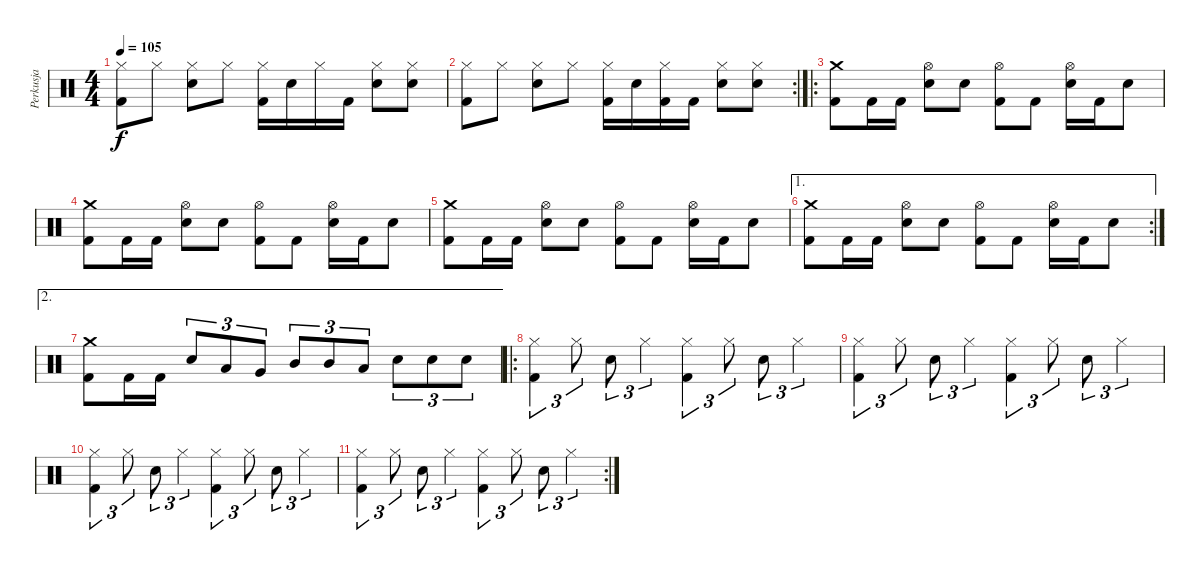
\track ("Perkusja" "Perkusja") {instrument percussion}
\staff {score}
\articulation defaults
\ts (4 4)
\tempo 105
\clef neutral
\ks c
("Hi-Hat (closed)" "Kick (hit) 2").8{dy f} "Hi-Hat (closed)".8 ("Hi-Hat (closed)" "Snare (hit) 2").8 "Hi-Hat (closed)".8 ("Hi-Hat (closed)" "Kick (hit) 2").16 "Snare (hit) 2".16 "Hi-Hat (closed)".16 "Kick (hit) 2".16 ("Hi-Hat (closed)" "Snare (hit) 2").8 ("Hi-Hat (closed)" "Snare (hit) 2").8 |
\rc 2
("Hi-Hat (closed)" "Kick (hit) 2").8 "Hi-Hat (closed)".8 ("Hi-Hat (closed)" "Snare (hit) 2").8 "Hi-Hat (closed)".8 ("Hi-Hat (closed)" "Kick (hit) 2").16 "Snare (hit) 2".16 ("Hi-Hat (closed)" "Kick (hit) 2").16 "Kick (hit) 2".16 ("Hi-Hat (closed)" "Snare (hit) 2").8 ("Hi-Hat (closed)" "Snare (hit) 2").8 |
\ro
("Crash medium (hit)" "Kick (hit) 2").8 "Kick (hit) 2".16 "Kick (hit) 2".16 ("Hi-Hat (open)" "Snare (hit) 2").8 "Snare (hit) 2".8 ("Hi-Hat (open)" "Kick (hit) 2").8 "Kick (hit) 2".8 ("Hi-Hat (open)" "Snare (hit) 2").16 "Kick (hit) 2".16 "Snare (hit) 2".8 |
("Crash medium (hit)" "Kick (hit) 2").8 "Kick (hit) 2".16 "Kick (hit) 2".16 ("Hi-Hat (open)" "Snare (hit) 2").8 "Snare (hit) 2".8 ("Hi-Hat (open)" "Kick (hit) 2").8 "Kick (hit) 2".8 ("Hi-Hat (open)" "Snare (hit) 2").16 "Kick (hit) 2".16 "Snare (hit) 2".8 |
("Crash medium (hit)" "Kick (hit) 2").8 "Kick (hit) 2".16 "Kick (hit) 2".16 ("Hi-Hat (open)" "Snare (hit) 2").8 "Snare (hit) 2".8 ("Hi-Hat (open)" "Kick (hit) 2").8 "Kick (hit) 2".8 ("Hi-Hat (open)" "Snare (hit) 2").16 "Kick (hit) 2".16 "Snare (hit) 2".8 |
\ae 1
\rc 2
("Crash medium (hit)" "Kick (hit) 2").8 "Kick (hit) 2".16 "Kick (hit) 2".16 ("Hi-Hat (open)" "Snare (hit) 2").8 "Snare (hit) 2".8 ("Hi-Hat (open)" "Kick (hit) 2").8 "Kick (hit) 2".8 ("Hi-Hat (open)" "Snare (hit) 2").16 "Kick (hit) 2".16 "Snare (hit) 2".8 |
\ae 2
("Crash medium (hit)" "Kick (hit) 2").8 "Kick (hit) 2".16 "Kick (hit) 2".16 "Snare (hit) 2".8{tu (3 2)} "Low Tom (hit)".8{tu (3 2)} "Very Low Tom (hit)".8{tu (3 2)} "Mid Tom (hit)".8{tu (3 2)} "Mid Tom (hit)".8{tu (3 2)} "Low Tom (hit)".8{tu (3 2)} "Snare (hit) 2".8{tu (3 2)} "Snare (hit) 2".8{tu (3 2)} "Snare (hit) 2".8{tu (3 2)} |
\ro
("Hi-Hat (closed)" "Kick (hit) 2").4{tu (3 2)} "Hi-Hat (closed)".8{tu (3 2)} "Snare (hit) 2".8{tu (3 2)} "Hi-Hat (closed)".4{tu (3 2)} ("Hi-Hat (closed)" "Kick (hit) 2").4{tu (3 2)} "Hi-Hat (closed)".8{tu (3 2)} "Snare (hit) 2".8{tu (3 2)} "Hi-Hat (closed)".4{tu (3 2)} |
("Hi-Hat (closed)" "Kick (hit) 2").4{tu (3 2)} "Hi-Hat (closed)".8{tu (3 2)} "Snare (hit) 2".8{tu (3 2)} "Hi-Hat (closed)".4{tu (3 2)} ("Hi-Hat (closed)" "Kick (hit) 2").4{tu (3 2)} "Hi-Hat (closed)".8{tu (3 2)} "Snare (hit) 2".8{tu (3 2)} "Hi-Hat (closed)".4{tu (3 2)} |
("Hi-Hat (closed)" "Kick (hit) 2").4{tu (3 2)} "Hi-Hat (closed)".8{tu (3 2)} "Snare (hit) 2".8{tu (3 2)} "Hi-Hat (closed)".4{tu (3 2)} ("Hi-Hat (closed)" "Kick (hit) 2").4{tu (3 2)} "Hi-Hat (closed)".8{tu (3 2)} "Snare (hit) 2".8{tu (3 2)} "Hi-Hat (closed)".4{tu (3 2)} |
\rc 2
("Hi-Hat (closed)" "Kick (hit) 2").4{tu (3 2)} "Hi-Hat (closed)".8{tu (3 2)} "Snare (hit) 2".8{tu (3 2)} "Hi-Hat (closed)".4{tu (3 2)} ("Hi-Hat (closed)" "Kick (hit) 2").4{tu (3 2)} "Hi-Hat (closed)".8{tu (3 2)} "Snare (hit) 2".8{tu (3 2)} "Hi-Hat (closed)".4{tu (3 2)}
